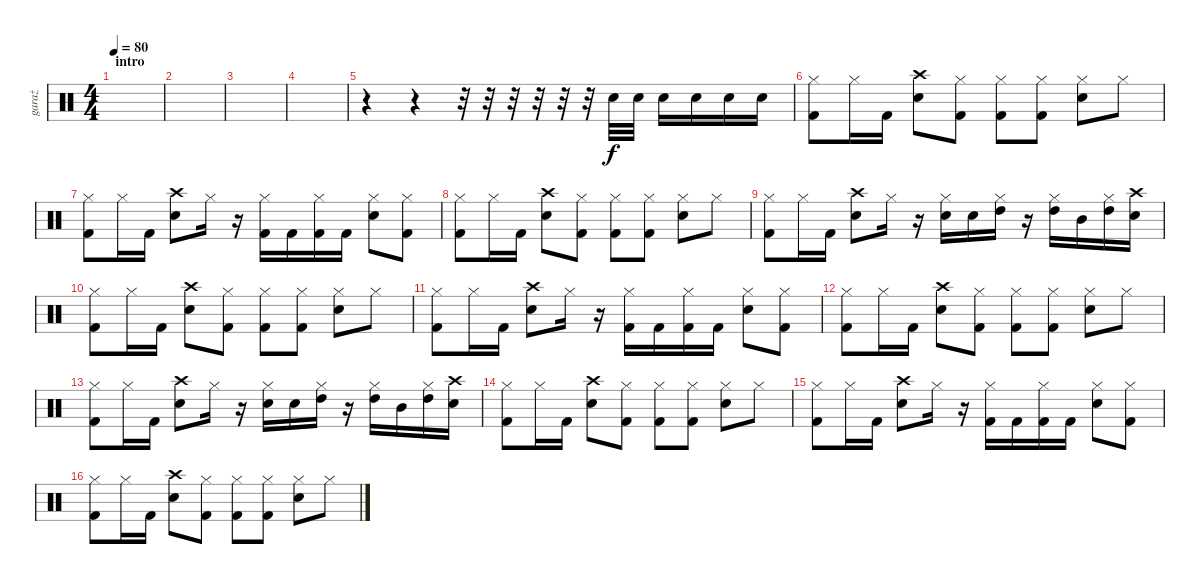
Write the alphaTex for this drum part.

\track ("garaż" "garaż") {instrument percussion}
\staff {score}
\articulation defaults
\ts (4 4)
\section ("" "intro")
\tempo 80
\clef neutral
\ks c
|
|
|
|
r.4 r.4 r.32 r.32 r.32 r.32 r.32 r.32 "Snare (hit) 2".32 "Snare (hit) 2".32 "Snare (hit) 2".16 "Snare (hit) 2".16 "Snare (hit) 2".16 "Snare (hit) 2".16 |
("Hi-Hat (closed)" "Kick (hit) 2").8 "Hi-Hat (closed)".16 "Kick (hit) 2".16 ("Crash high (hit)" "Snare (hit) 2").8 ("Hi-Hat (closed)" "Kick (hit) 2").8 ("Hi-Hat (closed)" "Kick (hit) 2").8 ("Hi-Hat (closed)" "Kick (hit) 2").8 ("Hi-Hat (closed)" "Snare (hit) 2").8 "Hi-Hat (closed)".8 |
("Hi-Hat (closed)" "Kick (hit) 2").8 "Hi-Hat (closed)".16 "Kick (hit) 2".16 ("Crash high (hit)" "Snare (hit) 2").8 "Hi-Hat (closed)".16 r.16 ("Hi-Hat (closed)" "Kick (hit) 2").16 "Kick (hit) 2".16 ("Hi-Hat (closed)" "Kick (hit) 2").16 "Kick (hit) 2".16 ("Hi-Hat (closed)" "Snare (hit) 2").8 ("Hi-Hat (closed)" "Kick (hit) 2").8 |
("Hi-Hat (closed)" "Kick (hit) 2").8 "Hi-Hat (closed)".16 "Kick (hit) 2".16 ("Crash high (hit)" "Snare (hit) 2").8 ("Hi-Hat (closed)" "Kick (hit) 2").8 ("Hi-Hat (closed)" "Kick (hit) 2").8 ("Hi-Hat (closed)" "Kick (hit) 2").8 ("Hi-Hat (closed)" "Snare (hit) 2").8 "Hi-Hat (closed)".8 |
("Hi-Hat (closed)" "Kick (hit) 2").8 "Hi-Hat (closed)".16 "Kick (hit) 2".16 ("Crash high (hit)" "Snare (hit) 2").8 "Hi-Hat (closed)".16 r.16 ("Hi-Hat (closed)" "Snare (hit) 2").16 "Snare (hit) 2".16 ("Hi-Hat (closed)" "High Tom (hit)").16 r.16 ("Hi-Hat (closed)" "High Tom (hit)").16 "Mid Tom (hit)".16 ("Hi-Hat (closed)" "High Tom (hit)").16 ("Crash high (hit)" "Snare (hit) 2").16 |
("Hi-Hat (closed)" "Kick (hit) 2").8 "Hi-Hat (closed)".16 "Kick (hit) 2".16 ("Crash high (hit)" "Snare (hit) 2").8 ("Hi-Hat (closed)" "Kick (hit) 2").8 ("Hi-Hat (closed)" "Kick (hit) 2").8 ("Hi-Hat (closed)" "Kick (hit) 2").8 ("Hi-Hat (closed)" "Snare (hit) 2").8 "Hi-Hat (closed)".8 |
("Hi-Hat (closed)" "Kick (hit) 2").8 "Hi-Hat (closed)".16 "Kick (hit) 2".16 ("Crash high (hit)" "Snare (hit) 2").8 "Hi-Hat (closed)".16 r.16 ("Hi-Hat (closed)" "Kick (hit) 2").16 "Kick (hit) 2".16 ("Hi-Hat (closed)" "Kick (hit) 2").16 "Kick (hit) 2".16 ("Hi-Hat (closed)" "Snare (hit) 2").8 ("Hi-Hat (closed)" "Kick (hit) 2").8 |
("Hi-Hat (closed)" "Kick (hit) 2").8 "Hi-Hat (closed)".16 "Kick (hit) 2".16 ("Crash high (hit)" "Snare (hit) 2").8 ("Hi-Hat (closed)" "Kick (hit) 2").8 ("Hi-Hat (closed)" "Kick (hit) 2").8 ("Hi-Hat (closed)" "Kick (hit) 2").8 ("Hi-Hat (closed)" "Snare (hit) 2").8 "Hi-Hat (closed)".8 |
("Hi-Hat (closed)" "Kick (hit) 2").8 "Hi-Hat (closed)".16 "Kick (hit) 2".16 ("Crash high (hit)" "Snare (hit) 2").8 "Hi-Hat (closed)".16 r.16 ("Hi-Hat (closed)" "Snare (hit) 2").16 "Snare (hit) 2".16 ("Hi-Hat (closed)" "High Tom (hit)").16 r.16 ("Hi-Hat (closed)" "High Tom (hit)").16 "Mid Tom (hit)".16 ("Hi-Hat (closed)" "High Tom (hit)").16 ("Crash high (hit)" "Snare (hit) 2").16 |
("Hi-Hat (closed)" "Kick (hit) 2").8 "Hi-Hat (closed)".16 "Kick (hit) 2".16 ("Crash high (hit)" "Snare (hit) 2").8 ("Hi-Hat (closed)" "Kick (hit) 2").8 ("Hi-Hat (closed)" "Kick (hit) 2").8 ("Hi-Hat (closed)" "Kick (hit) 2").8 ("Hi-Hat (closed)" "Snare (hit) 2").8 "Hi-Hat (closed)".8 |
("Hi-Hat (closed)" "Kick (hit) 2").8 "Hi-Hat (closed)".16 "Kick (hit) 2".16 ("Crash high (hit)" "Snare (hit) 2").8 "Hi-Hat (closed)".16 r.16 ("Hi-Hat (closed)" "Kick (hit) 2").16 "Kick (hit) 2".16 ("Hi-Hat (closed)" "Kick (hit) 2").16 "Kick (hit) 2".16 ("Hi-Hat (closed)" "Snare (hit) 2").8 ("Hi-Hat (closed)" "Kick (hit) 2").8 |
("Hi-Hat (closed)" "Kick (hit) 2").8 "Hi-Hat (closed)".16 "Kick (hit) 2".16 ("Crash high (hit)" "Snare (hit) 2").8 ("Hi-Hat (closed)" "Kick (hit) 2").8 ("Hi-Hat (closed)" "Kick (hit) 2").8 ("Hi-Hat (closed)" "Kick (hit) 2").8 ("Hi-Hat (closed)" "Snare (hit) 2").8 "Hi-Hat (closed)".8
